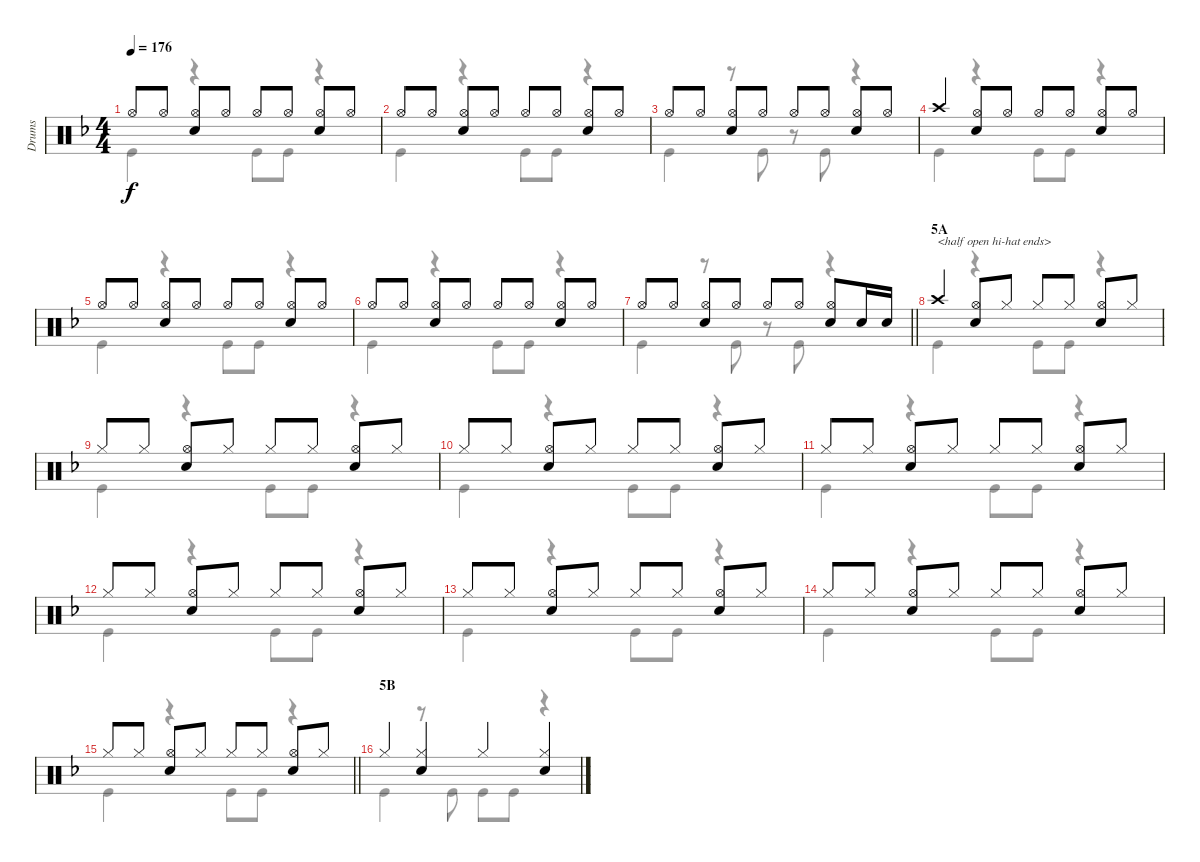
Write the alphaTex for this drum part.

\track ("Drums" "Drums") {instrument percussion}
\staff {score}
\articulation defaults
\voice
\ts (4 4)
\tempo 176
\clef neutral
\ks f "Hi-Hat (open)".8{dy f} "Hi-Hat (open)".8
("Hi-Hat (open)" "Snare (hit) 2").8 "Hi-Hat (open)".8 "Hi-Hat (open)".8 "Hi-Hat (open)".8 ("Hi-Hat (open)" "Snare (hit) 2").8 "Hi-Hat (open)".8 |
"Hi-Hat (open)".8 "Hi-Hat (open)".8 ("Hi-Hat (open)" "Snare (hit) 2").8 "Hi-Hat (open)".8 "Hi-Hat (open)".8 "Hi-Hat (open)".8 ("Hi-Hat (open)" "Snare (hit) 2").8 "Hi-Hat (open)".8 |
"Hi-Hat (open)".8 "Hi-Hat (open)".8 ("Hi-Hat (open)" "Snare (hit) 2").8 "Hi-Hat (open)".8 "Hi-Hat (open)".8 "Hi-Hat (open)".8 ("Hi-Hat (open)" "Snare (hit) 2").8 "Hi-Hat (open)".8 |
"Crash high (hit)".4 ("Hi-Hat (open)" "Snare (hit) 2").8 "Hi-Hat (open)".8 "Hi-Hat (open)".8 "Hi-Hat (open)".8 ("Hi-Hat (open)" "Snare (hit) 2").8 "Hi-Hat (open)".8 |
"Hi-Hat (open)".8 "Hi-Hat (open)".8 ("Hi-Hat (open)" "Snare (hit) 2").8 "Hi-Hat (open)".8 "Hi-Hat (open)".8 "Hi-Hat (open)".8 ("Hi-Hat (open)" "Snare (hit) 2").8 "Hi-Hat (open)".8 |
"Hi-Hat (open)".8 "Hi-Hat (open)".8 ("Hi-Hat (open)" "Snare (hit) 2").8 "Hi-Hat (open)".8 "Hi-Hat (open)".8 "Hi-Hat (open)".8 ("Hi-Hat (open)" "Snare (hit) 2").8 "Hi-Hat (open)".8 |
\barLineRight lightlight "Hi-Hat (open)".8 "Hi-Hat (open)".8
("Hi-Hat (open)" "Snare (hit) 2").8 "Hi-Hat (open)".8 "Hi-Hat (open)".8 "Hi-Hat (open)".8 ("Hi-Hat (open)" "Snare (hit) 2").8 "Snare (hit) 2".16 "Snare (hit) 2".16 |
\section ("" "5A")
"Crash high (hit)".4{txt "<half open hi-hat ends>"} ("Hi-Hat (open)" "Snare (hit) 2").8 "Hi-Hat (closed)".8 "Hi-Hat (closed)".8 "Hi-Hat (closed)".8 ("Hi-Hat (open)" "Snare (hit) 2").8 "Hi-Hat (closed)".8 |
"Hi-Hat (closed)".8 "Hi-Hat (closed)".8 ("Hi-Hat (open)" "Snare (hit) 2").8 "Hi-Hat (closed)".8 "Hi-Hat (closed)".8 "Hi-Hat (closed)".8 ("Hi-Hat (open)" "Snare (hit) 2").8 "Hi-Hat (closed)".8 |
"Hi-Hat (closed)".8 "Hi-Hat (closed)".8 ("Hi-Hat (open)" "Snare (hit) 2").8 "Hi-Hat (closed)".8 "Hi-Hat (closed)".8 "Hi-Hat (closed)".8 ("Hi-Hat (open)" "Snare (hit) 2").8 "Hi-Hat (closed)".8 |
"Hi-Hat (closed)".8 "Hi-Hat (closed)".8 ("Hi-Hat (open)" "Snare (hit) 2").8 "Hi-Hat (closed)".8 "Hi-Hat (closed)".8 "Hi-Hat (closed)".8 ("Hi-Hat (open)" "Snare (hit) 2").8 "Hi-Hat (closed)".8 |
"Hi-Hat (closed)".8 "Hi-Hat (closed)".8 ("Hi-Hat (open)" "Snare (hit) 2").8 "Hi-Hat (closed)".8 "Hi-Hat (closed)".8 "Hi-Hat (closed)".8 ("Hi-Hat (open)" "Snare (hit) 2").8 "Hi-Hat (closed)".8 |
"Hi-Hat (closed)".8 "Hi-Hat (closed)".8 ("Hi-Hat (open)" "Snare (hit) 2").8 "Hi-Hat (closed)".8 "Hi-Hat (closed)".8 "Hi-Hat (closed)".8 ("Hi-Hat (open)" "Snare (hit) 2").8 "Hi-Hat (closed)".8 |
"Hi-Hat (closed)".8 "Hi-Hat (closed)".8 ("Hi-Hat (open)" "Snare (hit) 2").8 "Hi-Hat (closed)".8 "Hi-Hat (closed)".8 "Hi-Hat (closed)".8 ("Hi-Hat (open)" "Snare (hit) 2").8 "Hi-Hat (closed)".8 |
\barLineRight lightlight "Hi-Hat (closed)".8 "Hi-Hat (closed)".8
("Hi-Hat (open)" "Snare (hit) 2").8 "Hi-Hat (closed)".8 "Hi-Hat (closed)".8 "Hi-Hat (closed)".8 ("Hi-Hat (open)" "Snare (hit) 2").8 "Hi-Hat (closed)".8 |
\section ("" "5B")
"Hi-Hat (closed)".4 ("Hi-Hat (closed)" "Snare (hit) 2").4 "Hi-Hat (closed)".4 ("Hi-Hat (closed)" "Snare (hit) 2").4
\voice
\clef neutral
\ottava regular
\simile none
\ks f "Kick (hit)".4{dy f}
r.4 "Kick (hit)".8 "Kick (hit)".8 r.4 |
"Kick (hit)".4 r.4 "Kick (hit)".8 "Kick (hit)".8 r.4 |
"Kick (hit)".4 r.8 "Kick (hit)".8 r.8 "Kick (hit)".8 r.4 |
"Kick (hit)".4 r.4 "Kick (hit)".8 "Kick (hit)".8 r.4 |
"Kick (hit)".4 r.4 "Kick (hit)".8 "Kick (hit)".8 r.4 |
"Kick (hit)".4 r.4 "Kick (hit)".8 "Kick (hit)".8 r.4 |
\barLineRight lightlight "Kick (hit)".4
r.8 "Kick (hit)".8 r.8 "Kick (hit)".8 r.4 |
"Kick (hit)".4 r.4 "Kick (hit)".8 "Kick (hit)".8 r.4 |
"Kick (hit)".4 r.4 "Kick (hit)".8 "Kick (hit)".8 r.4 |
"Kick (hit)".4 r.4 "Kick (hit)".8 "Kick (hit)".8 r.4 |
"Kick (hit)".4 r.4 "Kick (hit)".8 "Kick (hit)".8 r.4 |
"Kick (hit)".4 r.4 "Kick (hit)".8 "Kick (hit)".8 r.4 |
"Kick (hit)".4 r.4 "Kick (hit)".8 "Kick (hit)".8 r.4 |
"Kick (hit)".4 r.4 "Kick (hit)".8 "Kick (hit)".8 r.4 |
\barLineRight lightlight "Kick (hit)".4
r.4 "Kick (hit)".8 "Kick (hit)".8 r.4 |
"Kick (hit)".4 r.8 "Kick (hit)".8 "Kick (hit)".8 "Kick (hit)".8 r.4
